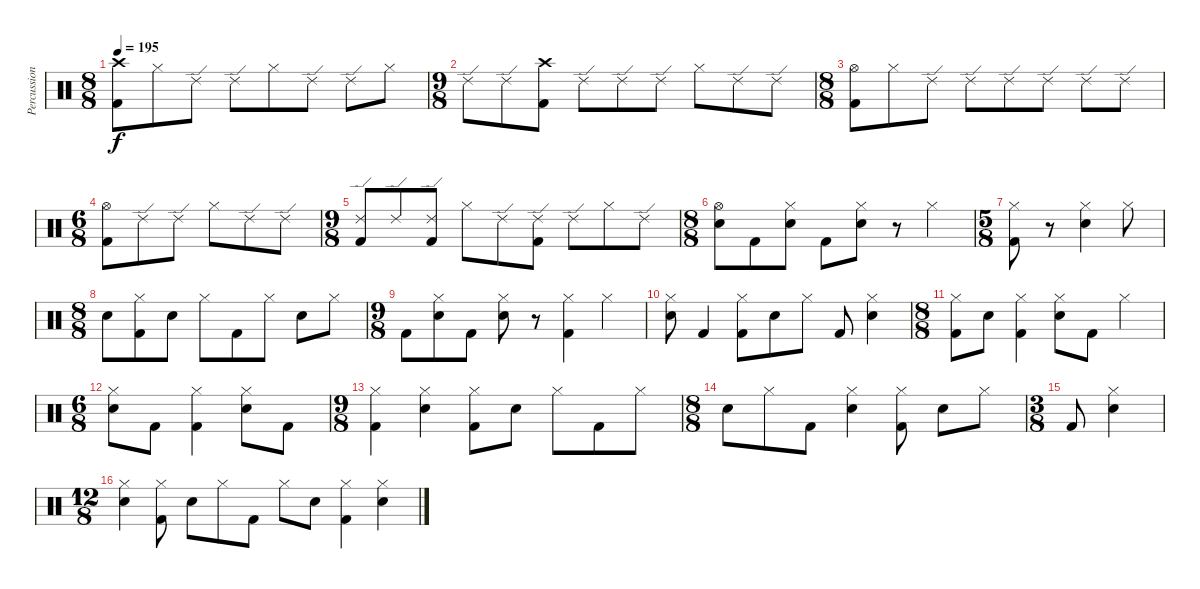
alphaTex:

\track ("Percussion" "Percussion") {instrument percussion}
\staff {score}
\articulation defaults
\ts (8 8)
\tempo 195
\clef neutral
\ks c
("Kick (hit) 2" "Crash high (hit)").8{dy f} "Hi-Hat (closed)".8 "Ride (edge) 2".8 "Ride (edge) 2".8 "Hi-Hat (closed)".8 "Ride (edge) 2".8 "Ride (edge) 2".8 "Hi-Hat (closed)".8 |
\ts (9 8)
"Ride (edge) 2".8 "Ride (edge) 2".8 ("Kick (hit) 2" "Crash high (hit)").8 "Ride (edge) 2".8 "Ride (edge) 2".8 "Ride (edge) 2".8 "Hi-Hat (closed)".8 "Ride (edge) 2".8 "Ride (edge) 2".8 |
\ts (8 8)
("Kick (hit) 2" "Hi-Hat (open)").8 "Hi-Hat (closed)".8 "Ride (edge) 2".8 "Ride (edge) 2".8 "Ride (edge) 2".8 "Ride (edge) 2".8 "Ride (edge) 2".8 "Ride (edge) 2".8 |
\ts (6 8)
("Kick (hit) 2" "Hi-Hat (open)").8 "Ride (edge) 2".8 "Ride (edge) 2".8 "Hi-Hat (closed)".8 "Ride (edge) 2".8 "Ride (edge) 2".8 |
\ts (9 8)
("Kick (hit) 2" "Ride (edge) 2").8 "Ride (edge) 2".8 ("Kick (hit) 2" "Ride (edge) 2").8 "Hi-Hat (closed)".8 "Ride (edge) 2".8 ("Kick (hit) 2" "Ride (edge) 2").8 "Ride (edge) 2".8 "Hi-Hat (closed)".8 "Ride (edge) 2".8 |
\ts (8 8)
("Hi-Hat (open)" "Electric Snare (hit)").8 "Kick (hit) 2".8 ("Hi-Hat (closed)" "Electric Snare (hit)").8 "Kick (hit) 2".8 ("Hi-Hat (closed)" "Electric Snare (hit)").8 r.8 "Hi-Hat (closed)".4 |
\ts (5 8)
("Kick (hit) 2" "Hi-Hat (closed)").8 r.8 ("Hi-Hat (closed)" "Electric Snare (hit)").4 "Hi-Hat (closed)".8 |
\ts (8 8)
"Electric Snare (hit)".8 ("Kick (hit) 2" "Hi-Hat (closed)").8 "Electric Snare (hit)".8 "Hi-Hat (closed)".8 "Kick (hit) 2".8 "Hi-Hat (closed)".8 "Electric Snare (hit)".8 "Hi-Hat (closed)".8 |
\ts (9 8)
"Kick (hit) 2".8 ("Hi-Hat (closed)" "Electric Snare (hit)").8 "Kick (hit) 2".8 ("Hi-Hat (closed)" "Electric Snare (hit)").8 r.8 ("Kick (hit) 2" "Hi-Hat (closed)").4 "Hi-Hat (closed)".4 |
("Hi-Hat (closed)" "Electric Snare (hit)").8 "Kick (hit) 2".4 ("Kick (hit) 2" "Hi-Hat (closed)").8 "Electric Snare (hit)".8 "Hi-Hat (closed)".8 "Kick (hit) 2".8 ("Hi-Hat (closed)" "Electric Snare (hit)").4 |
\ts (8 8)
("Kick (hit) 2" "Hi-Hat (closed)").8 "Electric Snare (hit)".8 ("Kick (hit) 2" "Hi-Hat (closed)").4 ("Hi-Hat (closed)" "Electric Snare (hit)").8 "Kick (hit) 2".8 "Hi-Hat (closed)".4 |
\ts (6 8)
("Hi-Hat (closed)" "Electric Snare (hit)").8 "Kick (hit) 2".8 ("Kick (hit) 2" "Hi-Hat (closed)").4 ("Hi-Hat (closed)" "Electric Snare (hit)").8 "Kick (hit) 2".8 |
\ts (9 8)
("Kick (hit) 2" "Hi-Hat (closed)").4 ("Hi-Hat (closed)" "Electric Snare (hit)").4 ("Kick (hit) 2" "Hi-Hat (closed)").8 "Electric Snare (hit)".8 "Hi-Hat (closed)".8 "Kick (hit) 2".8 "Hi-Hat (closed)".8 |
\ts (8 8)
"Electric Snare (hit)".8 "Hi-Hat (closed)".8 "Kick (hit) 2".8 ("Hi-Hat (closed)" "Electric Snare (hit)").4 ("Kick (hit) 2" "Hi-Hat (closed)").8 "Electric Snare (hit)".8 "Hi-Hat (closed)".8 |
\ts (3 8)
"Kick (hit) 2".8 ("Hi-Hat (closed)" "Electric Snare (hit)").4 |
\ts (12 8)
("Hi-Hat (closed)" "Electric Snare (hit)").4 ("Kick (hit) 2" "Hi-Hat (closed)").8 "Electric Snare (hit)".8 "Hi-Hat (closed)".8 "Kick (hit) 2".8 "Hi-Hat (closed)".8 "Electric Snare (hit)".8 ("Kick (hit) 2" "Hi-Hat (closed)").4 ("Hi-Hat (closed)" "Electric Snare (hit)").4
